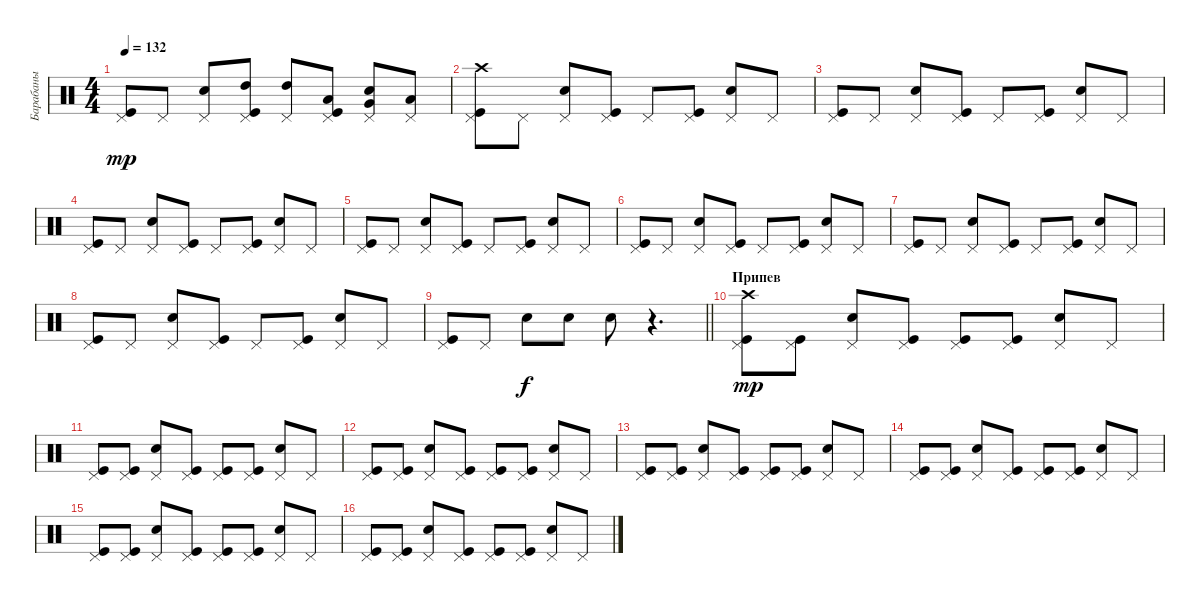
\track ("Барабаны" "Барабаны") {instrument percussion}
\staff {score}
\articulation defaults
\ts (4 4)
\tempo 132
\clef neutral
\ks c
("Kick (hit)" "Pedal Hi-Hat (hit)").8{dy mp} "Pedal Hi-Hat (hit)".8 ("Snare (hit) 2" "Pedal Hi-Hat (hit)").8 ("Kick (hit)" "Pedal Hi-Hat (hit)" "High Tom (hit)").8 ("Pedal Hi-Hat (hit)" "High Tom (hit)").8 ("Kick (hit)" "Pedal Hi-Hat (hit)" "Low Tom (hit)").8 ("Snare (hit) 2" "Pedal Hi-Hat (hit)" "Very Low Tom (hit)").8 ("Pedal Hi-Hat (hit)" "Low Floor Tom (hit)").8 |
("Kick (hit)" "Pedal Hi-Hat (hit)" "Crash high (hit)").8 "Pedal Hi-Hat (hit)".8 ("Snare (hit) 2" "Pedal Hi-Hat (hit)").8 ("Kick (hit)" "Pedal Hi-Hat (hit)").8 "Pedal Hi-Hat (hit)".8 ("Kick (hit)" "Pedal Hi-Hat (hit)").8 ("Snare (hit) 2" "Pedal Hi-Hat (hit)").8 "Pedal Hi-Hat (hit)".8 |
("Kick (hit)" "Pedal Hi-Hat (hit)").8 "Pedal Hi-Hat (hit)".8 ("Snare (hit) 2" "Pedal Hi-Hat (hit)").8 ("Kick (hit)" "Pedal Hi-Hat (hit)").8 "Pedal Hi-Hat (hit)".8 ("Kick (hit)" "Pedal Hi-Hat (hit)").8 ("Snare (hit) 2" "Pedal Hi-Hat (hit)").8 "Pedal Hi-Hat (hit)".8 |
("Kick (hit)" "Pedal Hi-Hat (hit)").8 "Pedal Hi-Hat (hit)".8 ("Snare (hit) 2" "Pedal Hi-Hat (hit)").8 ("Kick (hit)" "Pedal Hi-Hat (hit)").8 "Pedal Hi-Hat (hit)".8 ("Kick (hit)" "Pedal Hi-Hat (hit)").8 ("Snare (hit) 2" "Pedal Hi-Hat (hit)").8 "Pedal Hi-Hat (hit)".8 |
("Kick (hit)" "Pedal Hi-Hat (hit)").8 "Pedal Hi-Hat (hit)".8 ("Snare (hit) 2" "Pedal Hi-Hat (hit)").8 ("Kick (hit)" "Pedal Hi-Hat (hit)").8 "Pedal Hi-Hat (hit)".8 ("Kick (hit)" "Pedal Hi-Hat (hit)").8 ("Snare (hit) 2" "Pedal Hi-Hat (hit)").8 "Pedal Hi-Hat (hit)".8 |
("Kick (hit)" "Pedal Hi-Hat (hit)").8 "Pedal Hi-Hat (hit)".8 ("Snare (hit) 2" "Pedal Hi-Hat (hit)").8 ("Kick (hit)" "Pedal Hi-Hat (hit)").8 "Pedal Hi-Hat (hit)".8 ("Kick (hit)" "Pedal Hi-Hat (hit)").8 ("Snare (hit) 2" "Pedal Hi-Hat (hit)").8 "Pedal Hi-Hat (hit)".8 |
("Kick (hit)" "Pedal Hi-Hat (hit)").8 "Pedal Hi-Hat (hit)".8 ("Snare (hit) 2" "Pedal Hi-Hat (hit)").8 ("Kick (hit)" "Pedal Hi-Hat (hit)").8 "Pedal Hi-Hat (hit)".8 ("Kick (hit)" "Pedal Hi-Hat (hit)").8 ("Snare (hit) 2" "Pedal Hi-Hat (hit)").8 "Pedal Hi-Hat (hit)".8 |
("Kick (hit)" "Pedal Hi-Hat (hit)").8 "Pedal Hi-Hat (hit)".8 ("Snare (hit) 2" "Pedal Hi-Hat (hit)").8 ("Kick (hit)" "Pedal Hi-Hat (hit)").8 "Pedal Hi-Hat (hit)".8 ("Kick (hit)" "Pedal Hi-Hat (hit)").8 ("Snare (hit) 2" "Pedal Hi-Hat (hit)").8 "Pedal Hi-Hat (hit)".8 |
\barLineRight lightlight
("Kick (hit)" "Pedal Hi-Hat (hit)").8 "Pedal Hi-Hat (hit)".8 "Snare (hit) 2".8{dy f} "Snare (hit) 2".8 "Snare (hit) 2".8 r.4{d} |
\section ("" "Припев")
("Kick (hit)" "Pedal Hi-Hat (hit)" "Crash high (hit)").8{dy mp} ("Kick (hit)" "Pedal Hi-Hat (hit)").8 ("Snare (hit) 2" "Pedal Hi-Hat (hit)").8 ("Kick (hit)" "Pedal Hi-Hat (hit)").8 ("Kick (hit)" "Pedal Hi-Hat (hit)").8 ("Kick (hit)" "Pedal Hi-Hat (hit)").8 ("Snare (hit) 2" "Pedal Hi-Hat (hit)").8 "Pedal Hi-Hat (hit)".8 |
("Kick (hit)" "Pedal Hi-Hat (hit)").8 ("Kick (hit)" "Pedal Hi-Hat (hit)").8 ("Snare (hit) 2" "Pedal Hi-Hat (hit)").8 ("Kick (hit)" "Pedal Hi-Hat (hit)").8 ("Kick (hit)" "Pedal Hi-Hat (hit)").8 ("Kick (hit)" "Pedal Hi-Hat (hit)").8 ("Snare (hit) 2" "Pedal Hi-Hat (hit)").8 "Pedal Hi-Hat (hit)".8 |
("Kick (hit)" "Pedal Hi-Hat (hit)").8 ("Kick (hit)" "Pedal Hi-Hat (hit)").8 ("Snare (hit) 2" "Pedal Hi-Hat (hit)").8 ("Kick (hit)" "Pedal Hi-Hat (hit)").8 ("Kick (hit)" "Pedal Hi-Hat (hit)").8 ("Kick (hit)" "Pedal Hi-Hat (hit)").8 ("Snare (hit) 2" "Pedal Hi-Hat (hit)").8 "Pedal Hi-Hat (hit)".8 |
("Kick (hit)" "Pedal Hi-Hat (hit)").8 ("Kick (hit)" "Pedal Hi-Hat (hit)").8 ("Snare (hit) 2" "Pedal Hi-Hat (hit)").8 ("Kick (hit)" "Pedal Hi-Hat (hit)").8 ("Kick (hit)" "Pedal Hi-Hat (hit)").8 ("Kick (hit)" "Pedal Hi-Hat (hit)").8 ("Snare (hit) 2" "Pedal Hi-Hat (hit)").8 "Pedal Hi-Hat (hit)".8 |
("Kick (hit)" "Pedal Hi-Hat (hit)").8 ("Kick (hit)" "Pedal Hi-Hat (hit)").8 ("Snare (hit) 2" "Pedal Hi-Hat (hit)").8 ("Kick (hit)" "Pedal Hi-Hat (hit)").8 ("Kick (hit)" "Pedal Hi-Hat (hit)").8 ("Kick (hit)" "Pedal Hi-Hat (hit)").8 ("Snare (hit) 2" "Pedal Hi-Hat (hit)").8 "Pedal Hi-Hat (hit)".8 |
("Kick (hit)" "Pedal Hi-Hat (hit)").8 ("Kick (hit)" "Pedal Hi-Hat (hit)").8 ("Snare (hit) 2" "Pedal Hi-Hat (hit)").8 ("Kick (hit)" "Pedal Hi-Hat (hit)").8 ("Kick (hit)" "Pedal Hi-Hat (hit)").8 ("Kick (hit)" "Pedal Hi-Hat (hit)").8 ("Snare (hit) 2" "Pedal Hi-Hat (hit)").8 "Pedal Hi-Hat (hit)".8 |
("Kick (hit)" "Pedal Hi-Hat (hit)").8 ("Kick (hit)" "Pedal Hi-Hat (hit)").8 ("Snare (hit) 2" "Pedal Hi-Hat (hit)").8 ("Kick (hit)" "Pedal Hi-Hat (hit)").8 ("Kick (hit)" "Pedal Hi-Hat (hit)").8 ("Kick (hit)" "Pedal Hi-Hat (hit)").8 ("Snare (hit) 2" "Pedal Hi-Hat (hit)").8 "Pedal Hi-Hat (hit)".8
